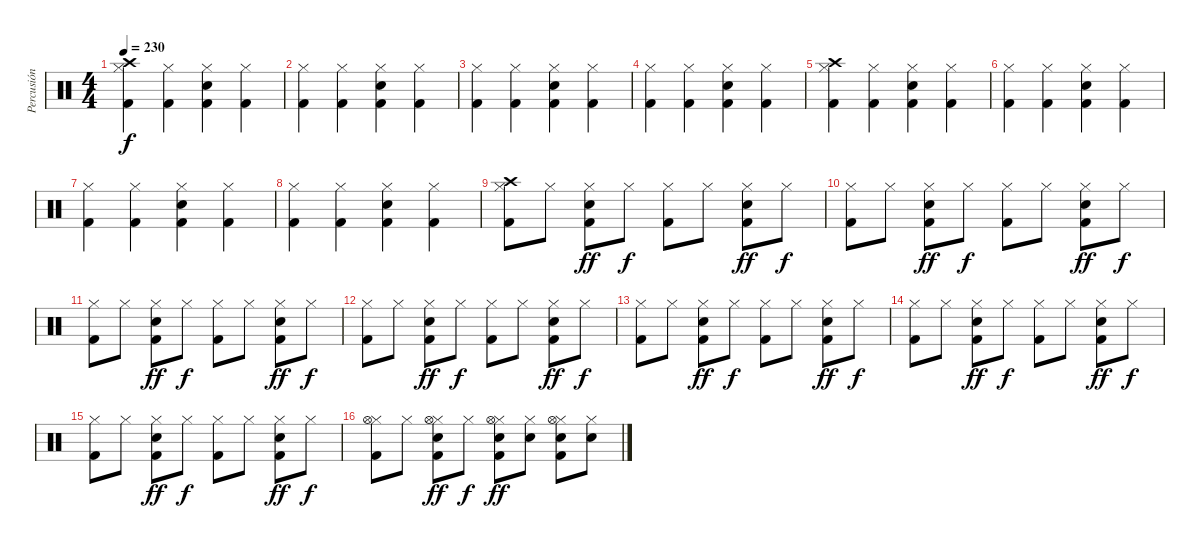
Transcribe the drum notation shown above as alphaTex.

\track ("Percusión" "Percusión") {instrument percussion}
\staff {score}
\articulation defaults
\ts (4 4)
\tempo 230
\clef neutral
\ks c
("Crash high (hit)" "Hi-Hat (closed)" "Kick (hit) 2").4{dy f} ("Hi-Hat (closed)" "Kick (hit) 2").4 ("Hi-Hat (closed)" "Snare (hit) 2" "Kick (hit) 2").4 ("Hi-Hat (closed)" "Kick (hit) 2").4 |
("Hi-Hat (closed)" "Kick (hit) 2").4 ("Hi-Hat (closed)" "Kick (hit) 2").4 ("Hi-Hat (closed)" "Snare (hit) 2" "Kick (hit) 2").4 ("Hi-Hat (closed)" "Kick (hit) 2").4 |
("Hi-Hat (closed)" "Kick (hit) 2").4 ("Hi-Hat (closed)" "Kick (hit) 2").4 ("Hi-Hat (closed)" "Snare (hit) 2" "Kick (hit) 2").4 ("Hi-Hat (closed)" "Kick (hit) 2").4 |
("Hi-Hat (closed)" "Kick (hit) 2").4 ("Hi-Hat (closed)" "Kick (hit) 2").4 ("Hi-Hat (closed)" "Snare (hit) 2" "Kick (hit) 2").4 ("Hi-Hat (closed)" "Kick (hit) 2").4 |
("Crash high (hit)" "Hi-Hat (closed)" "Kick (hit) 2").4 ("Hi-Hat (closed)" "Kick (hit) 2").4 ("Hi-Hat (closed)" "Snare (hit) 2" "Kick (hit) 2").4 ("Hi-Hat (closed)" "Kick (hit) 2").4 |
("Hi-Hat (closed)" "Kick (hit) 2").4 ("Hi-Hat (closed)" "Kick (hit) 2").4 ("Hi-Hat (closed)" "Snare (hit) 2" "Kick (hit) 2").4 ("Hi-Hat (closed)" "Kick (hit) 2").4 |
("Hi-Hat (closed)" "Kick (hit) 2").4 ("Hi-Hat (closed)" "Kick (hit) 2").4 ("Hi-Hat (closed)" "Snare (hit) 2" "Kick (hit) 2").4 ("Hi-Hat (closed)" "Kick (hit) 2").4 |
("Hi-Hat (closed)" "Kick (hit) 2").4 ("Hi-Hat (closed)" "Kick (hit) 2").4 ("Hi-Hat (closed)" "Snare (hit) 2" "Kick (hit) 2").4 ("Hi-Hat (closed)" "Kick (hit) 2").4 |
("Crash high (hit)" "Hi-Hat (closed)" "Kick (hit) 2").8 "Hi-Hat (closed)".8 ("Hi-Hat (closed)" "Snare (hit) 2" "Kick (hit) 2").8{dy ff} "Hi-Hat (closed)".8{dy f} ("Hi-Hat (closed)" "Kick (hit) 2").8 "Hi-Hat (closed)".8 ("Hi-Hat (closed)" "Snare (hit) 2" "Kick (hit) 2").8{dy ff} "Hi-Hat (closed)".8{dy f} |
("Hi-Hat (closed)" "Kick (hit) 2").8 "Hi-Hat (closed)".8 ("Hi-Hat (closed)" "Snare (hit) 2" "Kick (hit) 2").8{dy ff} "Hi-Hat (closed)".8{dy f} ("Hi-Hat (closed)" "Kick (hit) 2").8 "Hi-Hat (closed)".8 ("Hi-Hat (closed)" "Snare (hit) 2" "Kick (hit) 2").8{dy ff} "Hi-Hat (closed)".8{dy f} |
("Hi-Hat (closed)" "Kick (hit) 2").8 "Hi-Hat (closed)".8 ("Hi-Hat (closed)" "Snare (hit) 2" "Kick (hit) 2").8{dy ff} "Hi-Hat (closed)".8{dy f} ("Hi-Hat (closed)" "Kick (hit) 2").8 "Hi-Hat (closed)".8 ("Hi-Hat (closed)" "Snare (hit) 2" "Kick (hit) 2").8{dy ff} "Hi-Hat (closed)".8{dy f} |
("Hi-Hat (closed)" "Kick (hit) 2").8 "Hi-Hat (closed)".8 ("Hi-Hat (closed)" "Snare (hit) 2" "Kick (hit) 2").8{dy ff} "Hi-Hat (closed)".8{dy f} ("Hi-Hat (closed)" "Kick (hit) 2").8 "Hi-Hat (closed)".8 ("Hi-Hat (closed)" "Snare (hit) 2" "Kick (hit) 2").8{dy ff} "Hi-Hat (closed)".8{dy f} |
("Hi-Hat (closed)" "Kick (hit) 2").8 "Hi-Hat (closed)".8 ("Hi-Hat (closed)" "Snare (hit) 2" "Kick (hit) 2").8{dy ff} "Hi-Hat (closed)".8{dy f} ("Hi-Hat (closed)" "Kick (hit) 2").8 "Hi-Hat (closed)".8 ("Hi-Hat (closed)" "Snare (hit) 2" "Kick (hit) 2").8{dy ff} "Hi-Hat (closed)".8{dy f} |
("Hi-Hat (closed)" "Kick (hit) 2").8 "Hi-Hat (closed)".8 ("Hi-Hat (closed)" "Snare (hit) 2" "Kick (hit) 2").8{dy ff} "Hi-Hat (closed)".8{dy f} ("Hi-Hat (closed)" "Kick (hit) 2").8 "Hi-Hat (closed)".8 ("Hi-Hat (closed)" "Snare (hit) 2" "Kick (hit) 2").8{dy ff} "Hi-Hat (closed)".8{dy f} |
("Hi-Hat (closed)" "Kick (hit) 2").8 "Hi-Hat (closed)".8 ("Hi-Hat (closed)" "Snare (hit) 2" "Kick (hit) 2").8{dy ff} "Hi-Hat (closed)".8{dy f} ("Hi-Hat (closed)" "Kick (hit) 2").8 "Hi-Hat (closed)".8 ("Hi-Hat (closed)" "Snare (hit) 2" "Kick (hit) 2").8{dy ff} "Hi-Hat (closed)".8{dy f} |
("Hi-Hat (closed)" "Kick (hit) 2" "Hi-Hat (open)").8 "Hi-Hat (closed)".8 ("Hi-Hat (closed)" "Snare (hit) 2" "Kick (hit) 2" "Hi-Hat (open)").8{dy ff} "Hi-Hat (closed)".8{dy f} ("Hi-Hat (closed)" "Snare (hit) 2" "Kick (hit) 2" "Hi-Hat (open)").8{dy ff} ("Hi-Hat (closed)" "Snare (hit) 2").8 ("Hi-Hat (closed)" "Snare (hit) 2" "Kick (hit) 2" "Hi-Hat (open)").8 ("Hi-Hat (closed)" "Snare (hit) 2").8
